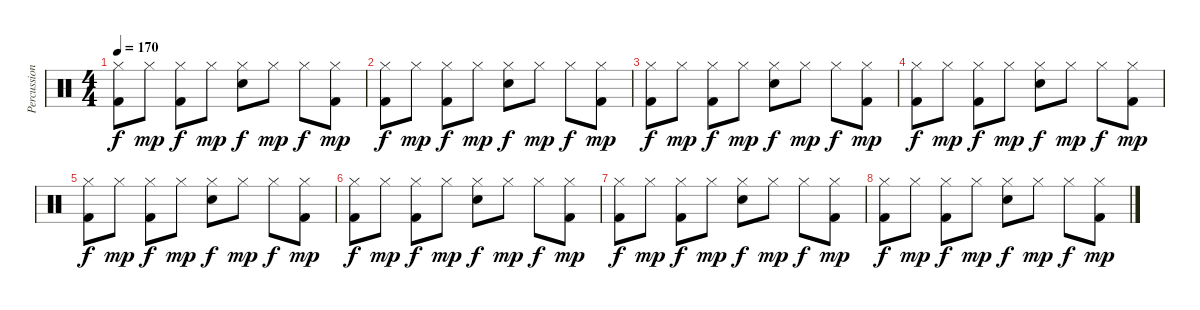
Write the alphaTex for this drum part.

\track ("Percussion" "Percussion") {instrument percussion}
\staff {score}
\articulation defaults
\ts (4 4)
\tempo 170
\clef neutral
\ks c
("Hi-Hat (closed)" "Kick (hit) 2").8{dy f} "Hi-Hat (closed)".8{dy mp} ("Hi-Hat (closed)" "Kick (hit) 2").8{dy f} "Hi-Hat (closed)".8{dy mp} ("Hi-Hat (closed)" "Snare (hit) 2").8{dy f} "Hi-Hat (closed)".8{dy mp} "Hi-Hat (closed)".8{dy f} ("Hi-Hat (closed)" "Kick (hit) 2").8{dy mp} |
("Hi-Hat (closed)" "Kick (hit) 2").8{dy f} "Hi-Hat (closed)".8{dy mp} ("Hi-Hat (closed)" "Kick (hit) 2").8{dy f} "Hi-Hat (closed)".8{dy mp} ("Hi-Hat (closed)" "Snare (hit) 2").8{dy f} "Hi-Hat (closed)".8{dy mp} "Hi-Hat (closed)".8{dy f} ("Hi-Hat (closed)" "Kick (hit) 2").8{dy mp} |
("Hi-Hat (closed)" "Kick (hit) 2").8{dy f} "Hi-Hat (closed)".8{dy mp} ("Hi-Hat (closed)" "Kick (hit) 2").8{dy f} "Hi-Hat (closed)".8{dy mp} ("Hi-Hat (closed)" "Snare (hit) 2").8{dy f} "Hi-Hat (closed)".8{dy mp} "Hi-Hat (closed)".8{dy f} ("Hi-Hat (closed)" "Kick (hit) 2").8{dy mp} |
("Hi-Hat (closed)" "Kick (hit) 2").8{dy f} "Hi-Hat (closed)".8{dy mp} ("Hi-Hat (closed)" "Kick (hit) 2").8{dy f} "Hi-Hat (closed)".8{dy mp} ("Hi-Hat (closed)" "Snare (hit) 2").8{dy f} "Hi-Hat (closed)".8{dy mp} "Hi-Hat (closed)".8{dy f} ("Hi-Hat (closed)" "Kick (hit) 2").8{dy mp} |
("Hi-Hat (closed)" "Kick (hit) 2").8{dy f} "Hi-Hat (closed)".8{dy mp} ("Hi-Hat (closed)" "Kick (hit) 2").8{dy f} "Hi-Hat (closed)".8{dy mp} ("Hi-Hat (closed)" "Snare (hit) 2").8{dy f} "Hi-Hat (closed)".8{dy mp} "Hi-Hat (closed)".8{dy f} ("Hi-Hat (closed)" "Kick (hit) 2").8{dy mp} |
("Hi-Hat (closed)" "Kick (hit) 2").8{dy f} "Hi-Hat (closed)".8{dy mp} ("Hi-Hat (closed)" "Kick (hit) 2").8{dy f} "Hi-Hat (closed)".8{dy mp} ("Hi-Hat (closed)" "Snare (hit) 2").8{dy f} "Hi-Hat (closed)".8{dy mp} "Hi-Hat (closed)".8{dy f} ("Hi-Hat (closed)" "Kick (hit) 2").8{dy mp} |
("Hi-Hat (closed)" "Kick (hit) 2").8{dy f} "Hi-Hat (closed)".8{dy mp} ("Hi-Hat (closed)" "Kick (hit) 2").8{dy f} "Hi-Hat (closed)".8{dy mp} ("Hi-Hat (closed)" "Snare (hit) 2").8{dy f} "Hi-Hat (closed)".8{dy mp} "Hi-Hat (closed)".8{dy f} ("Hi-Hat (closed)" "Kick (hit) 2").8{dy mp} |
("Hi-Hat (closed)" "Kick (hit) 2").8{dy f} "Hi-Hat (closed)".8{dy mp} ("Hi-Hat (closed)" "Kick (hit) 2").8{dy f} "Hi-Hat (closed)".8{dy mp} ("Hi-Hat (closed)" "Snare (hit) 2").8{dy f} "Hi-Hat (closed)".8{dy mp} "Hi-Hat (closed)".8{dy f} ("Hi-Hat (closed)" "Kick (hit) 2").8{dy mp}
